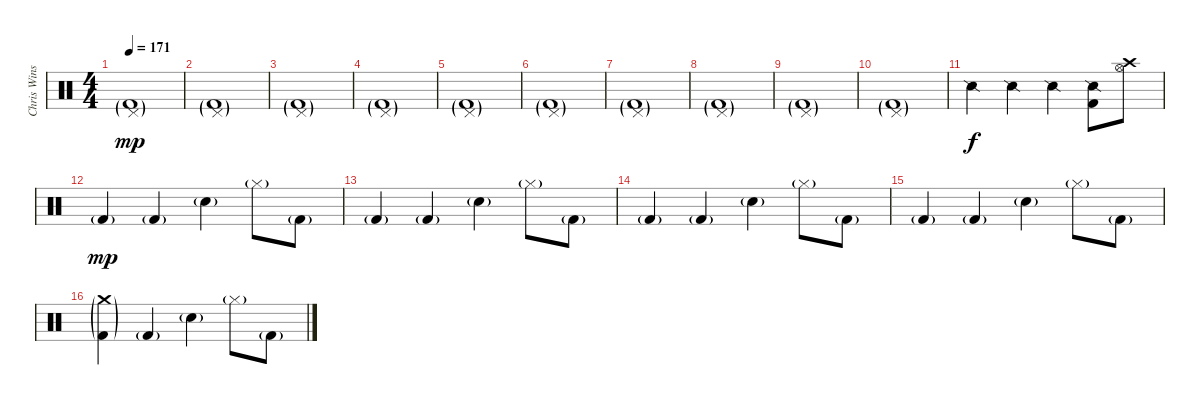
\track ("Chris Winship (Drums)" "Chris Wins") {instrument percussion}
\staff {score}
\articulation defaults
\ts (4 4)
\tempo 171
\clef neutral
\ks c
("Pedal Hi-Hat (hit)"{g} "Kick (hit) 2"{g}).1{dy mp} |
("Pedal Hi-Hat (hit)"{g} "Kick (hit) 2"{g}).1 |
("Pedal Hi-Hat (hit)"{g} "Kick (hit) 2"{g}).1 |
("Pedal Hi-Hat (hit)"{g} "Kick (hit) 2"{g}).1 |
("Pedal Hi-Hat (hit)"{g} "Kick (hit) 2"{g}).1 |
("Pedal Hi-Hat (hit)"{g} "Kick (hit) 2"{g}).1 |
("Pedal Hi-Hat (hit)"{g} "Kick (hit) 2"{g}).1 |
("Pedal Hi-Hat (hit)"{g} "Kick (hit) 2"{g}).1 |
("Pedal Hi-Hat (hit)"{g} "Kick (hit) 2"{g}).1 |
("Pedal Hi-Hat (hit)"{g} "Kick (hit) 2"{g}).1 |
"Snare (side stick) 2".4{dy f} "Snare (side stick) 2".4 "Snare (side stick) 2".4 ("Snare (side stick) 2" "Kick (hit) 2").8 ("Crash high (hit)" "Hi-Hat (open)").8 |
"Kick (hit) 2"{g}.4{dy mp} "Kick (hit) 2"{g}.4 "Snare (hit) 2"{g}.4 "Hi-Hat (closed)"{g}.8 "Kick (hit) 2"{g}.8 |
"Kick (hit) 2"{g}.4 "Kick (hit) 2"{g}.4 "Snare (hit) 2"{g}.4 "Hi-Hat (closed)"{g}.8 "Kick (hit) 2"{g}.8 |
"Kick (hit) 2"{g}.4 "Kick (hit) 2"{g}.4 "Snare (hit) 2"{g}.4 "Hi-Hat (closed)"{g}.8 "Kick (hit) 2"{g}.8 |
"Kick (hit) 2"{g}.4 "Kick (hit) 2"{g}.4 "Snare (hit) 2"{g}.4 "Hi-Hat (closed)"{g}.8 "Kick (hit) 2"{g}.8 |
("Crash medium (hit)"{g} "Kick (hit) 2"{g}).4 "Kick (hit) 2"{g}.4 "Snare (hit) 2"{g}.4 "Hi-Hat (closed)"{g}.8 "Kick (hit) 2"{g}.8
